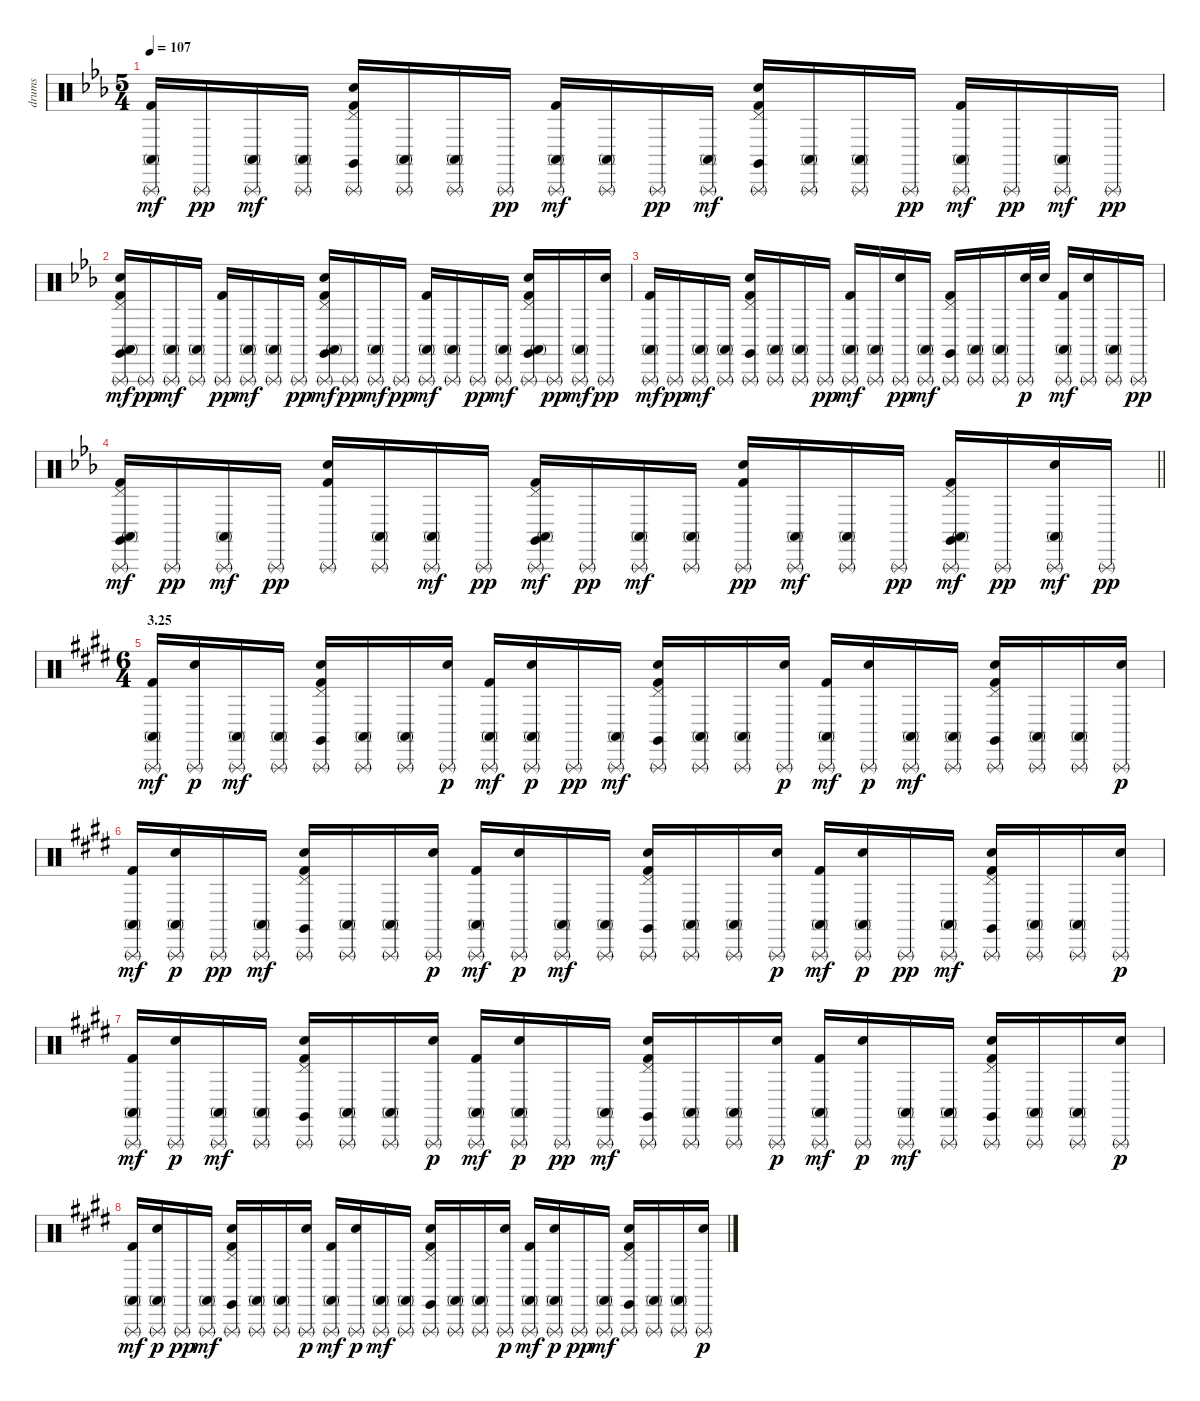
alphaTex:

\track ("drums" "drums") {instrument percussion}
\staff {score}
\articulation defaults
\ts (5 4)
\tempo 107
\clef neutral
\ks eb
("Triangle (rnute)" "Conga high (mute)" "Kick (hit) 2").16{dy mf} "Triangle (rnute)".16{dy pp} ("Triangle (rnute)" "Conga high (mute)").16{dy mf} ("Triangle (rnute)" "Conga high (mute)").16 ("Triangle (rnute)" "Claves (hit)" "Pedal Hi-Hat (hit)" "Electric Snare (hit)" "Kick (hit) 2").16 ("Triangle (rnute)" "Conga high (mute)").16 ("Triangle (rnute)" "Conga high (mute)").16 "Triangle (rnute)".16{dy pp} ("Triangle (rnute)" "Conga high (mute)" "Kick (hit) 2").16{dy mf} ("Triangle (rnute)" "Conga high (mute)").16 "Triangle (rnute)".16{dy pp} ("Triangle (rnute)" "Conga high (mute)").16{dy mf} ("Triangle (rnute)" "Claves (hit)" "Pedal Hi-Hat (hit)" "Electric Snare (hit)" "Kick (hit) 2").16 ("Triangle (rnute)" "Conga high (mute)").16 ("Triangle (rnute)" "Conga high (mute)").16 "Triangle (rnute)".16{dy pp} ("Triangle (rnute)" "Conga high (mute)" "Kick (hit) 2").16{dy mf} "Triangle (rnute)".16{dy pp} ("Triangle (rnute)" "Conga high (mute)").16{dy mf} "Triangle (rnute)".16{dy pp} |
("Triangle (rnute)" "Claves (hit)" "Conga high (mute)" "Pedal Hi-Hat (hit)" "Electric Snare (hit)" "Kick (hit) 2").16{dy mf} "Triangle (rnute)".16{dy pp} ("Triangle (rnute)" "Conga high (mute)").16{dy mf} ("Triangle (rnute)" "Conga high (mute)").16 ("Triangle (rnute)" "Kick (hit) 2").16{dy pp} ("Triangle (rnute)" "Conga high (mute)").16{dy mf} ("Triangle (rnute)" "Conga high (mute)").16 "Triangle (rnute)".16{dy pp} ("Triangle (rnute)" "Claves (hit)" "Conga high (mute)" "Pedal Hi-Hat (hit)" "Electric Snare (hit)" "Kick (hit) 2").16{dy mf} "Triangle (rnute)".16{dy pp} ("Triangle (rnute)" "Conga high (mute)").16{dy mf} "Triangle (rnute)".16{dy pp} ("Triangle (rnute)" "Conga high (mute)" "Kick (hit) 2").16{dy mf} ("Triangle (rnute)" "Conga high (mute)").16 "Triangle (rnute)".16{dy pp} ("Triangle (rnute)" "Conga high (mute)").16{dy mf} ("Triangle (rnute)" "Claves (hit)" "Conga high (mute)" "Pedal Hi-Hat (hit)" "Electric Snare (hit)" "Kick (hit) 2").16 "Triangle (rnute)".16{dy pp} ("Triangle (rnute)" "Conga high (mute)").16{dy mf} ("Triangle (rnute)" "Electric Snare (hit)").16{dy pp} |
("Triangle (rnute)" "Conga high (mute)" "Kick (hit) 2").16{dy mf} "Triangle (rnute)".16{dy pp} ("Triangle (rnute)" "Conga high (mute)").16{dy mf} ("Triangle (rnute)" "Conga high (mute)").16 ("Triangle (rnute)" "Claves (hit)" "Pedal Hi-Hat (hit)" "Electric Snare (hit)" "Kick (hit) 2").16 ("Triangle (rnute)" "Conga high (mute)").16 ("Triangle (rnute)" "Conga high (mute)").16 "Triangle (rnute)".16{dy pp} ("Triangle (rnute)" "Conga high (mute)" "Kick (hit) 2").16{dy mf} ("Triangle (rnute)" "Conga high (mute)").16 ("Electric Snare (hit)" "Triangle (rnute)").16{dy pp} ("Triangle (rnute)" "Conga high (mute)").16{dy mf} ("Triangle (rnute)" "Claves (hit)" "Pedal Hi-Hat (hit)" "Kick (hit) 2").16 ("Triangle (rnute)" "Conga high (mute)").16 ("Triangle (rnute)" "Conga high (mute)").16 ("Triangle (rnute)" "Electric Snare (hit)").32{dy p} "Electric Snare (hit)".32 ("Triangle (rnute)" "Conga high (mute)" "Kick (hit) 2").16{dy mf} ("Triangle (rnute)" "Electric Snare (hit)").16 ("Triangle (rnute)" "Conga high (mute)").16 "Triangle (rnute)".16{dy pp} |
\barLineRight lightlight
("Triangle (rnute)" "Claves (hit)" "Conga high (mute)" "Pedal Hi-Hat (hit)" "Kick (hit) 2").16{dy mf} "Triangle (rnute)".16{dy pp} ("Triangle (rnute)" "Conga high (mute)").16{dy mf} "Triangle (rnute)".16{dy pp} ("Triangle (rnute)" "Kick (hit) 2" "Electric Snare (hit)").16 ("Conga high (mute)" "Triangle (rnute)").16 ("Triangle (rnute)" "Conga high (mute)").16{dy mf} "Triangle (rnute)".16{dy pp} ("Triangle (rnute)" "Claves (hit)" "Conga high (mute)" "Pedal Hi-Hat (hit)" "Kick (hit) 2").16{dy mf} "Triangle (rnute)".16{dy pp} ("Triangle (rnute)" "Conga high (mute)").16{dy mf} ("Triangle (rnute)" "Conga high (mute)").16 ("Triangle (rnute)" "Electric Snare (hit)" "Kick (hit) 2").16{dy pp} ("Triangle (rnute)" "Conga high (mute)").16{dy mf} ("Triangle (rnute)" "Conga high (mute)").16 "Triangle (rnute)".16{dy pp} ("Triangle (rnute)" "Claves (hit)" "Conga high (mute)" "Pedal Hi-Hat (hit)" "Kick (hit) 2").16{dy mf} "Triangle (rnute)".16{dy pp} ("Electric Snare (hit)" "Triangle (rnute)" "Conga high (mute)").16{dy mf} "Triangle (rnute)".16{dy pp} |
\ts (6 4)
\section ("" "3.25")
\ks e
("Triangle (rnute)" "Conga high (mute)" "Kick (hit) 2").16{dy mf} ("Triangle (rnute)" "Electric Snare (hit)").16{dy p} ("Triangle (rnute)" "Conga high (mute)").16{dy mf} ("Triangle (rnute)" "Conga high (mute)").16 ("Triangle (rnute)" "Claves (hit)" "Pedal Hi-Hat (hit)" "Electric Snare (hit)" "Kick (hit) 2").16 ("Triangle (rnute)" "Conga high (mute)").16 ("Triangle (rnute)" "Conga high (mute)").16 ("Triangle (rnute)" "Electric Snare (hit)").16{dy p} ("Triangle (rnute)" "Conga high (mute)" "Kick (hit) 2").16{dy mf} ("Triangle (rnute)" "Conga high (mute)" "Electric Snare (hit)").16{dy p} "Triangle (rnute)".16{dy pp} ("Triangle (rnute)" "Conga high (mute)").16{dy mf} ("Triangle (rnute)" "Claves (hit)" "Pedal Hi-Hat (hit)" "Electric Snare (hit)" "Kick (hit) 2").16 ("Triangle (rnute)" "Conga high (mute)").16 ("Triangle (rnute)" "Conga high (mute)").16 ("Triangle (rnute)" "Electric Snare (hit)").16{dy p} ("Triangle (rnute)" "Conga high (mute)" "Kick (hit) 2").16{dy mf} ("Triangle (rnute)" "Electric Snare (hit)").16{dy p} ("Triangle (rnute)" "Conga high (mute)").16{dy mf} ("Triangle (rnute)" "Conga high (mute)").16 ("Triangle (rnute)" "Claves (hit)" "Pedal Hi-Hat (hit)" "Electric Snare (hit)" "Kick (hit) 2").16 ("Triangle (rnute)" "Conga high (mute)").16 ("Triangle (rnute)" "Conga high (mute)").16 ("Triangle (rnute)" "Electric Snare (hit)").16{dy p} |
("Triangle (rnute)" "Conga high (mute)" "Kick (hit) 2").16{dy mf} ("Triangle (rnute)" "Conga high (mute)" "Electric Snare (hit)").16{dy p} "Triangle (rnute)".16{dy pp} ("Triangle (rnute)" "Conga high (mute)").16{dy mf} ("Triangle (rnute)" "Claves (hit)" "Pedal Hi-Hat (hit)" "Electric Snare (hit)" "Kick (hit) 2").16 ("Triangle (rnute)" "Conga high (mute)").16 ("Triangle (rnute)" "Conga high (mute)").16 ("Triangle (rnute)" "Electric Snare (hit)").16{dy p} ("Triangle (rnute)" "Conga high (mute)" "Kick (hit) 2").16{dy mf} ("Triangle (rnute)" "Electric Snare (hit)").16{dy p} ("Triangle (rnute)" "Conga high (mute)").16{dy mf} ("Triangle (rnute)" "Conga high (mute)").16 ("Triangle (rnute)" "Claves (hit)" "Pedal Hi-Hat (hit)" "Electric Snare (hit)" "Kick (hit) 2").16 ("Triangle (rnute)" "Conga high (mute)").16 ("Triangle (rnute)" "Conga high (mute)").16 ("Triangle (rnute)" "Electric Snare (hit)").16{dy p} ("Triangle (rnute)" "Conga high (mute)" "Kick (hit) 2").16{dy mf} ("Triangle (rnute)" "Conga high (mute)" "Electric Snare (hit)").16{dy p} "Triangle (rnute)".16{dy pp} ("Triangle (rnute)" "Conga high (mute)").16{dy mf} ("Triangle (rnute)" "Claves (hit)" "Pedal Hi-Hat (hit)" "Electric Snare (hit)" "Kick (hit) 2").16 ("Triangle (rnute)" "Conga high (mute)").16 ("Triangle (rnute)" "Conga high (mute)").16 ("Triangle (rnute)" "Electric Snare (hit)").16{dy p} |
("Triangle (rnute)" "Conga high (mute)" "Kick (hit) 2").16{dy mf} ("Triangle (rnute)" "Electric Snare (hit)").16{dy p} ("Triangle (rnute)" "Conga high (mute)").16{dy mf} ("Triangle (rnute)" "Conga high (mute)").16 ("Triangle (rnute)" "Claves (hit)" "Pedal Hi-Hat (hit)" "Electric Snare (hit)" "Kick (hit) 2").16 ("Triangle (rnute)" "Conga high (mute)").16 ("Triangle (rnute)" "Conga high (mute)").16 ("Triangle (rnute)" "Electric Snare (hit)").16{dy p} ("Triangle (rnute)" "Conga high (mute)" "Kick (hit) 2").16{dy mf} ("Triangle (rnute)" "Conga high (mute)" "Electric Snare (hit)").16{dy p} "Triangle (rnute)".16{dy pp} ("Triangle (rnute)" "Conga high (mute)").16{dy mf} ("Triangle (rnute)" "Claves (hit)" "Pedal Hi-Hat (hit)" "Electric Snare (hit)" "Kick (hit) 2").16 ("Triangle (rnute)" "Conga high (mute)").16 ("Triangle (rnute)" "Conga high (mute)").16 ("Triangle (rnute)" "Electric Snare (hit)").16{dy p} ("Triangle (rnute)" "Conga high (mute)" "Kick (hit) 2").16{dy mf} ("Triangle (rnute)" "Electric Snare (hit)").16{dy p} ("Triangle (rnute)" "Conga high (mute)").16{dy mf} ("Triangle (rnute)" "Conga high (mute)").16 ("Triangle (rnute)" "Claves (hit)" "Pedal Hi-Hat (hit)" "Electric Snare (hit)" "Kick (hit) 2").16 ("Triangle (rnute)" "Conga high (mute)").16 ("Triangle (rnute)" "Conga high (mute)").16 ("Triangle (rnute)" "Electric Snare (hit)").16{dy p} |
("Triangle (rnute)" "Conga high (mute)" "Kick (hit) 2").16{dy mf} ("Triangle (rnute)" "Conga high (mute)" "Electric Snare (hit)").16{dy p} "Triangle (rnute)".16{dy pp} ("Triangle (rnute)" "Conga high (mute)").16{dy mf} ("Triangle (rnute)" "Claves (hit)" "Pedal Hi-Hat (hit)" "Electric Snare (hit)" "Kick (hit) 2").16 ("Triangle (rnute)" "Conga high (mute)").16 ("Triangle (rnute)" "Conga high (mute)").16 ("Triangle (rnute)" "Electric Snare (hit)").16{dy p} ("Triangle (rnute)" "Conga high (mute)" "Kick (hit) 2").16{dy mf} ("Triangle (rnute)" "Electric Snare (hit)").16{dy p} ("Triangle (rnute)" "Conga high (mute)").16{dy mf} ("Triangle (rnute)" "Conga high (mute)").16 ("Triangle (rnute)" "Claves (hit)" "Pedal Hi-Hat (hit)" "Electric Snare (hit)" "Kick (hit) 2").16 ("Triangle (rnute)" "Conga high (mute)").16 ("Triangle (rnute)" "Conga high (mute)").16 ("Triangle (rnute)" "Electric Snare (hit)").16{dy p} ("Triangle (rnute)" "Conga high (mute)" "Kick (hit) 2").16{dy mf} ("Triangle (rnute)" "Conga high (mute)" "Electric Snare (hit)").16{dy p} "Triangle (rnute)".16{dy pp} ("Triangle (rnute)" "Conga high (mute)").16{dy mf} ("Triangle (rnute)" "Claves (hit)" "Pedal Hi-Hat (hit)" "Electric Snare (hit)" "Kick (hit) 2").16 ("Triangle (rnute)" "Conga high (mute)").16 ("Triangle (rnute)" "Conga high (mute)").16 ("Triangle (rnute)" "Electric Snare (hit)").16{dy p}
